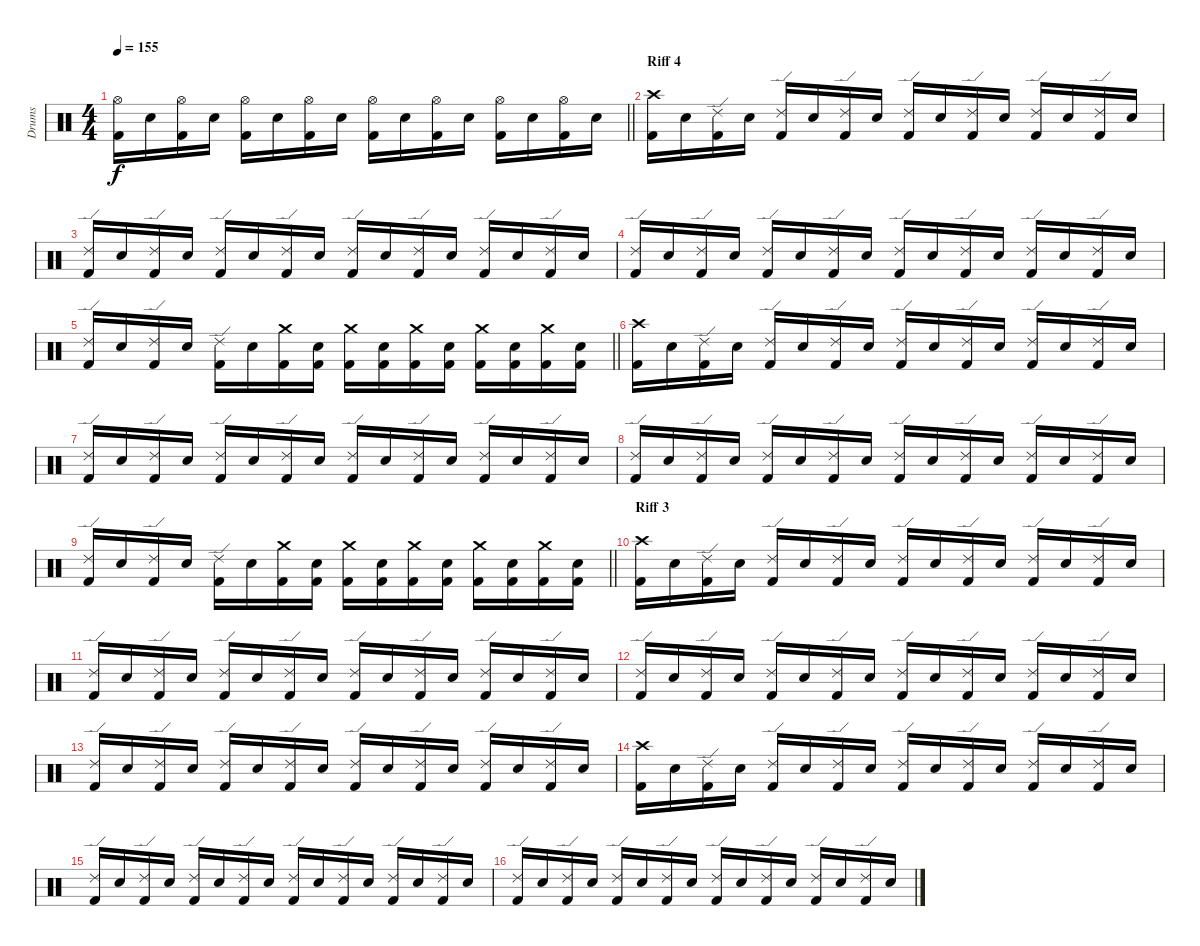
\track ("Drums" "Drums") {instrument percussion}
\staff {score}
\articulation defaults
\ts (4 4)
\tempo 155
\clef neutral
\barLineRight lightlight
\ks c
("Hi-Hat (open)" "Kick (hit) 2").16{dy f} "Electric Snare (hit)".16 ("Hi-Hat (open)" "Kick (hit) 2").16 "Electric Snare (hit)".16 ("Hi-Hat (open)" "Kick (hit) 2").16 "Electric Snare (hit)".16 ("Hi-Hat (open)" "Kick (hit) 2").16 "Electric Snare (hit)".16 ("Hi-Hat (open)" "Kick (hit) 2").16 "Electric Snare (hit)".16 ("Hi-Hat (open)" "Kick (hit) 2").16 "Electric Snare (hit)".16 ("Hi-Hat (open)" "Kick (hit) 2").16 "Electric Snare (hit)".16 ("Hi-Hat (open)" "Kick (hit) 2").16 "Electric Snare (hit)".16 |
\section ("" "Riff 4")
("Crash high (hit)" "Kick (hit) 2").16 "Electric Snare (hit)".16 ("Ride (edge) 2" "Kick (hit) 2").16 "Electric Snare (hit)".16 ("Ride (edge) 2" "Kick (hit) 2").16 "Electric Snare (hit)".16 ("Ride (edge) 2" "Kick (hit) 2").16 "Electric Snare (hit)".16 ("Ride (edge) 2" "Kick (hit) 2").16 "Electric Snare (hit)".16 ("Ride (edge) 2" "Kick (hit) 2").16 "Electric Snare (hit)".16 ("Ride (edge) 2" "Kick (hit) 2").16 "Electric Snare (hit)".16 ("Ride (edge) 2" "Kick (hit) 2").16 "Electric Snare (hit)".16 |
("Ride (edge) 2" "Kick (hit) 2").16 "Electric Snare (hit)".16 ("Ride (edge) 2" "Kick (hit) 2").16 "Electric Snare (hit)".16 ("Ride (edge) 2" "Kick (hit) 2").16 "Electric Snare (hit)".16 ("Ride (edge) 2" "Kick (hit) 2").16 "Electric Snare (hit)".16 ("Ride (edge) 2" "Kick (hit) 2").16 "Electric Snare (hit)".16 ("Ride (edge) 2" "Kick (hit) 2").16 "Electric Snare (hit)".16 ("Ride (edge) 2" "Kick (hit) 2").16 "Electric Snare (hit)".16 ("Ride (edge) 2" "Kick (hit) 2").16 "Electric Snare (hit)".16 |
("Ride (edge) 2" "Kick (hit) 2").16 "Electric Snare (hit)".16 ("Ride (edge) 2" "Kick (hit) 2").16 "Electric Snare (hit)".16 ("Ride (edge) 2" "Kick (hit) 2").16 "Electric Snare (hit)".16 ("Ride (edge) 2" "Kick (hit) 2").16 "Electric Snare (hit)".16 ("Ride (edge) 2" "Kick (hit) 2").16 "Electric Snare (hit)".16 ("Ride (edge) 2" "Kick (hit) 2").16 "Electric Snare (hit)".16 ("Ride (edge) 2" "Kick (hit) 2").16 "Electric Snare (hit)".16 ("Ride (edge) 2" "Kick (hit) 2").16 "Electric Snare (hit)".16 |
\barLineRight lightlight
("Ride (edge) 2" "Kick (hit) 2").16 "Electric Snare (hit)".16 ("Ride (edge) 2" "Kick (hit) 2").16 "Electric Snare (hit)".16 ("Ride (edge) 2" "Kick (hit) 2").16 "Electric Snare (hit)".16 ("Crash medium (hit)" "Kick (hit) 2").16 ("Electric Snare (hit)" "Kick (hit) 2").16 ("Crash medium (hit)" "Kick (hit) 2").16 ("Electric Snare (hit)" "Kick (hit) 2").16 ("Crash medium (hit)" "Kick (hit) 2").16 ("Electric Snare (hit)" "Kick (hit) 2").16 ("Crash medium (hit)" "Kick (hit) 2").16 ("Electric Snare (hit)" "Kick (hit) 2").16 ("Crash medium (hit)" "Kick (hit) 2").16 ("Electric Snare (hit)" "Kick (hit) 2").16 |
("Crash high (hit)" "Kick (hit) 2").16 "Electric Snare (hit)".16 ("Ride (edge) 2" "Kick (hit) 2").16 "Electric Snare (hit)".16 ("Ride (edge) 2" "Kick (hit) 2").16 "Electric Snare (hit)".16 ("Ride (edge) 2" "Kick (hit) 2").16 "Electric Snare (hit)".16 ("Ride (edge) 2" "Kick (hit) 2").16 "Electric Snare (hit)".16 ("Ride (edge) 2" "Kick (hit) 2").16 "Electric Snare (hit)".16 ("Ride (edge) 2" "Kick (hit) 2").16 "Electric Snare (hit)".16 ("Ride (edge) 2" "Kick (hit) 2").16 "Electric Snare (hit)".16 |
("Ride (edge) 2" "Kick (hit) 2").16 "Electric Snare (hit)".16 ("Ride (edge) 2" "Kick (hit) 2").16 "Electric Snare (hit)".16 ("Ride (edge) 2" "Kick (hit) 2").16 "Electric Snare (hit)".16 ("Ride (edge) 2" "Kick (hit) 2").16 "Electric Snare (hit)".16 ("Ride (edge) 2" "Kick (hit) 2").16 "Electric Snare (hit)".16 ("Ride (edge) 2" "Kick (hit) 2").16 "Electric Snare (hit)".16 ("Ride (edge) 2" "Kick (hit) 2").16 "Electric Snare (hit)".16 ("Ride (edge) 2" "Kick (hit) 2").16 "Electric Snare (hit)".16 |
("Ride (edge) 2" "Kick (hit) 2").16 "Electric Snare (hit)".16 ("Ride (edge) 2" "Kick (hit) 2").16 "Electric Snare (hit)".16 ("Ride (edge) 2" "Kick (hit) 2").16 "Electric Snare (hit)".16 ("Ride (edge) 2" "Kick (hit) 2").16 "Electric Snare (hit)".16 ("Ride (edge) 2" "Kick (hit) 2").16 "Electric Snare (hit)".16 ("Ride (edge) 2" "Kick (hit) 2").16 "Electric Snare (hit)".16 ("Ride (edge) 2" "Kick (hit) 2").16 "Electric Snare (hit)".16 ("Ride (edge) 2" "Kick (hit) 2").16 "Electric Snare (hit)".16 |
\barLineRight lightlight
("Ride (edge) 2" "Kick (hit) 2").16 "Electric Snare (hit)".16 ("Ride (edge) 2" "Kick (hit) 2").16 "Electric Snare (hit)".16 ("Ride (edge) 2" "Kick (hit) 2").16 "Electric Snare (hit)".16 ("Crash medium (hit)" "Kick (hit) 2").16 ("Electric Snare (hit)" "Kick (hit) 2").16 ("Crash medium (hit)" "Kick (hit) 2").16 ("Electric Snare (hit)" "Kick (hit) 2").16 ("Crash medium (hit)" "Kick (hit) 2").16 ("Electric Snare (hit)" "Kick (hit) 2").16 ("Crash medium (hit)" "Kick (hit) 2").16 ("Electric Snare (hit)" "Kick (hit) 2").16 ("Crash medium (hit)" "Kick (hit) 2").16 ("Electric Snare (hit)" "Kick (hit) 2").16 |
\section ("" "Riff 3")
("Crash high (hit)" "Kick (hit) 2").16 "Electric Snare (hit)".16 ("Ride (edge) 2" "Kick (hit) 2").16 "Electric Snare (hit)".16 ("Ride (edge) 2" "Kick (hit) 2").16 "Electric Snare (hit)".16 ("Ride (edge) 2" "Kick (hit) 2").16 "Electric Snare (hit)".16 ("Ride (edge) 2" "Kick (hit) 2").16 "Electric Snare (hit)".16 ("Ride (edge) 2" "Kick (hit) 2").16 "Electric Snare (hit)".16 ("Ride (edge) 2" "Kick (hit) 2").16 "Electric Snare (hit)".16 ("Ride (edge) 2" "Kick (hit) 2").16 "Electric Snare (hit)".16 |
("Ride (edge) 2" "Kick (hit) 2").16 "Electric Snare (hit)".16 ("Ride (edge) 2" "Kick (hit) 2").16 "Electric Snare (hit)".16 ("Ride (edge) 2" "Kick (hit) 2").16 "Electric Snare (hit)".16 ("Ride (edge) 2" "Kick (hit) 2").16 "Electric Snare (hit)".16 ("Ride (edge) 2" "Kick (hit) 2").16 "Electric Snare (hit)".16 ("Ride (edge) 2" "Kick (hit) 2").16 "Electric Snare (hit)".16 ("Ride (edge) 2" "Kick (hit) 2").16 "Electric Snare (hit)".16 ("Ride (edge) 2" "Kick (hit) 2").16 "Electric Snare (hit)".16 |
("Ride (edge) 2" "Kick (hit) 2").16 "Electric Snare (hit)".16 ("Ride (edge) 2" "Kick (hit) 2").16 "Electric Snare (hit)".16 ("Ride (edge) 2" "Kick (hit) 2").16 "Electric Snare (hit)".16 ("Ride (edge) 2" "Kick (hit) 2").16 "Electric Snare (hit)".16 ("Ride (edge) 2" "Kick (hit) 2").16 "Electric Snare (hit)".16 ("Ride (edge) 2" "Kick (hit) 2").16 "Electric Snare (hit)".16 ("Ride (edge) 2" "Kick (hit) 2").16 "Electric Snare (hit)".16 ("Ride (edge) 2" "Kick (hit) 2").16 "Electric Snare (hit)".16 |
("Ride (edge) 2" "Kick (hit) 2").16 "Electric Snare (hit)".16 ("Ride (edge) 2" "Kick (hit) 2").16 "Electric Snare (hit)".16 ("Ride (edge) 2" "Kick (hit) 2").16 "Electric Snare (hit)".16 ("Ride (edge) 2" "Kick (hit) 2").16 "Electric Snare (hit)".16 ("Ride (edge) 2" "Kick (hit) 2").16 "Electric Snare (hit)".16 ("Ride (edge) 2" "Kick (hit) 2").16 "Electric Snare (hit)".16 ("Ride (edge) 2" "Kick (hit) 2").16 "Electric Snare (hit)".16 ("Ride (edge) 2" "Kick (hit) 2").16 "Electric Snare (hit)".16 |
("Crash high (hit)" "Kick (hit) 2").16 "Electric Snare (hit)".16 ("Ride (edge) 2" "Kick (hit) 2").16 "Electric Snare (hit)".16 ("Ride (edge) 2" "Kick (hit) 2").16 "Electric Snare (hit)".16 ("Ride (edge) 2" "Kick (hit) 2").16 "Electric Snare (hit)".16 ("Ride (edge) 2" "Kick (hit) 2").16 "Electric Snare (hit)".16 ("Ride (edge) 2" "Kick (hit) 2").16 "Electric Snare (hit)".16 ("Ride (edge) 2" "Kick (hit) 2").16 "Electric Snare (hit)".16 ("Ride (edge) 2" "Kick (hit) 2").16 "Electric Snare (hit)".16 |
("Ride (edge) 2" "Kick (hit) 2").16 "Electric Snare (hit)".16 ("Ride (edge) 2" "Kick (hit) 2").16 "Electric Snare (hit)".16 ("Ride (edge) 2" "Kick (hit) 2").16 "Electric Snare (hit)".16 ("Ride (edge) 2" "Kick (hit) 2").16 "Electric Snare (hit)".16 ("Ride (edge) 2" "Kick (hit) 2").16 "Electric Snare (hit)".16 ("Ride (edge) 2" "Kick (hit) 2").16 "Electric Snare (hit)".16 ("Ride (edge) 2" "Kick (hit) 2").16 "Electric Snare (hit)".16 ("Ride (edge) 2" "Kick (hit) 2").16 "Electric Snare (hit)".16 |
("Ride (edge) 2" "Kick (hit) 2").16 "Electric Snare (hit)".16 ("Ride (edge) 2" "Kick (hit) 2").16 "Electric Snare (hit)".16 ("Ride (edge) 2" "Kick (hit) 2").16 "Electric Snare (hit)".16 ("Ride (edge) 2" "Kick (hit) 2").16 "Electric Snare (hit)".16 ("Ride (edge) 2" "Kick (hit) 2").16 "Electric Snare (hit)".16 ("Ride (edge) 2" "Kick (hit) 2").16 "Electric Snare (hit)".16 ("Ride (edge) 2" "Kick (hit) 2").16 "Electric Snare (hit)".16 ("Ride (edge) 2" "Kick (hit) 2").16 "Electric Snare (hit)".16
